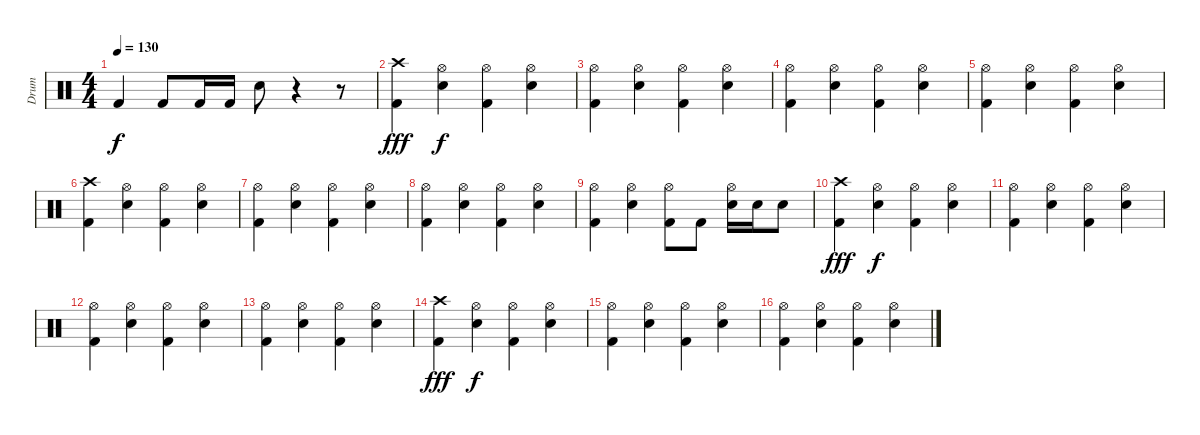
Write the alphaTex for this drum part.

\track ("Drum" "Drum") {instrument percussion}
\staff {score}
\articulation defaults
\ts (4 4)
\tempo 130
\clef neutral
\ks c "Kick (hit) 2".4{dy f} "Kick (hit) 2".8 "Kick (hit) 2".16 "Kick (hit) 2".16 "Electric Snare (hit)".8
r.4 r.8 |
("Kick (hit) 2" "Crash high (hit)").4{dy fff} ("Electric Snare (hit)" "Hi-Hat (open)").4{dy f} ("Kick (hit) 2" "Hi-Hat (open)").4 ("Electric Snare (hit)" "Hi-Hat (open)").4 |
("Kick (hit) 2" "Hi-Hat (open)").4 ("Electric Snare (hit)" "Hi-Hat (open)").4 ("Kick (hit) 2" "Hi-Hat (open)").4 ("Electric Snare (hit)" "Hi-Hat (open)").4 |
("Kick (hit) 2" "Hi-Hat (open)").4 ("Electric Snare (hit)" "Hi-Hat (open)").4 ("Kick (hit) 2" "Hi-Hat (open)").4 ("Electric Snare (hit)" "Hi-Hat (open)").4 |
("Kick (hit) 2" "Hi-Hat (open)").4 ("Electric Snare (hit)" "Hi-Hat (open)").4 ("Kick (hit) 2" "Hi-Hat (open)").4 ("Electric Snare (hit)" "Hi-Hat (open)").4 |
("Kick (hit) 2" "Crash high (hit)").4 ("Electric Snare (hit)" "Hi-Hat (open)").4 ("Kick (hit) 2" "Hi-Hat (open)").4 ("Electric Snare (hit)" "Hi-Hat (open)").4 |
("Kick (hit) 2" "Hi-Hat (open)").4 ("Electric Snare (hit)" "Hi-Hat (open)").4 ("Kick (hit) 2" "Hi-Hat (open)").4 ("Electric Snare (hit)" "Hi-Hat (open)").4 |
("Kick (hit) 2" "Hi-Hat (open)").4 ("Electric Snare (hit)" "Hi-Hat (open)").4 ("Kick (hit) 2" "Hi-Hat (open)").4 ("Electric Snare (hit)" "Hi-Hat (open)").4 |
("Kick (hit) 2" "Hi-Hat (open)").4 ("Electric Snare (hit)" "Hi-Hat (open)").4 ("Kick (hit) 2" "Hi-Hat (open)").8 "Kick (hit) 2".8 ("Electric Snare (hit)" "Hi-Hat (open)").16 "Electric Snare (hit)".16 "Electric Snare (hit)".8 |
("Kick (hit) 2" "Crash high (hit)").4{dy fff} ("Electric Snare (hit)" "Hi-Hat (open)").4{dy f} ("Kick (hit) 2" "Hi-Hat (open)").4 ("Electric Snare (hit)" "Hi-Hat (open)").4 |
("Kick (hit) 2" "Hi-Hat (open)").4 ("Electric Snare (hit)" "Hi-Hat (open)").4 ("Kick (hit) 2" "Hi-Hat (open)").4 ("Electric Snare (hit)" "Hi-Hat (open)").4 |
("Kick (hit) 2" "Hi-Hat (open)").4 ("Electric Snare (hit)" "Hi-Hat (open)").4 ("Kick (hit) 2" "Hi-Hat (open)").4 ("Electric Snare (hit)" "Hi-Hat (open)").4 |
("Kick (hit) 2" "Hi-Hat (open)").4 ("Electric Snare (hit)" "Hi-Hat (open)").4 ("Kick (hit) 2" "Hi-Hat (open)").4 ("Electric Snare (hit)" "Hi-Hat (open)").4 |
("Kick (hit) 2" "Crash high (hit)").4{dy fff} ("Electric Snare (hit)" "Hi-Hat (open)").4{dy f} ("Kick (hit) 2" "Hi-Hat (open)").4 ("Electric Snare (hit)" "Hi-Hat (open)").4 |
("Kick (hit) 2" "Hi-Hat (open)").4 ("Electric Snare (hit)" "Hi-Hat (open)").4 ("Kick (hit) 2" "Hi-Hat (open)").4 ("Electric Snare (hit)" "Hi-Hat (open)").4 |
("Kick (hit) 2" "Hi-Hat (open)").4 ("Electric Snare (hit)" "Hi-Hat (open)").4 ("Kick (hit) 2" "Hi-Hat (open)").4 ("Electric Snare (hit)" "Hi-Hat (open)").4
